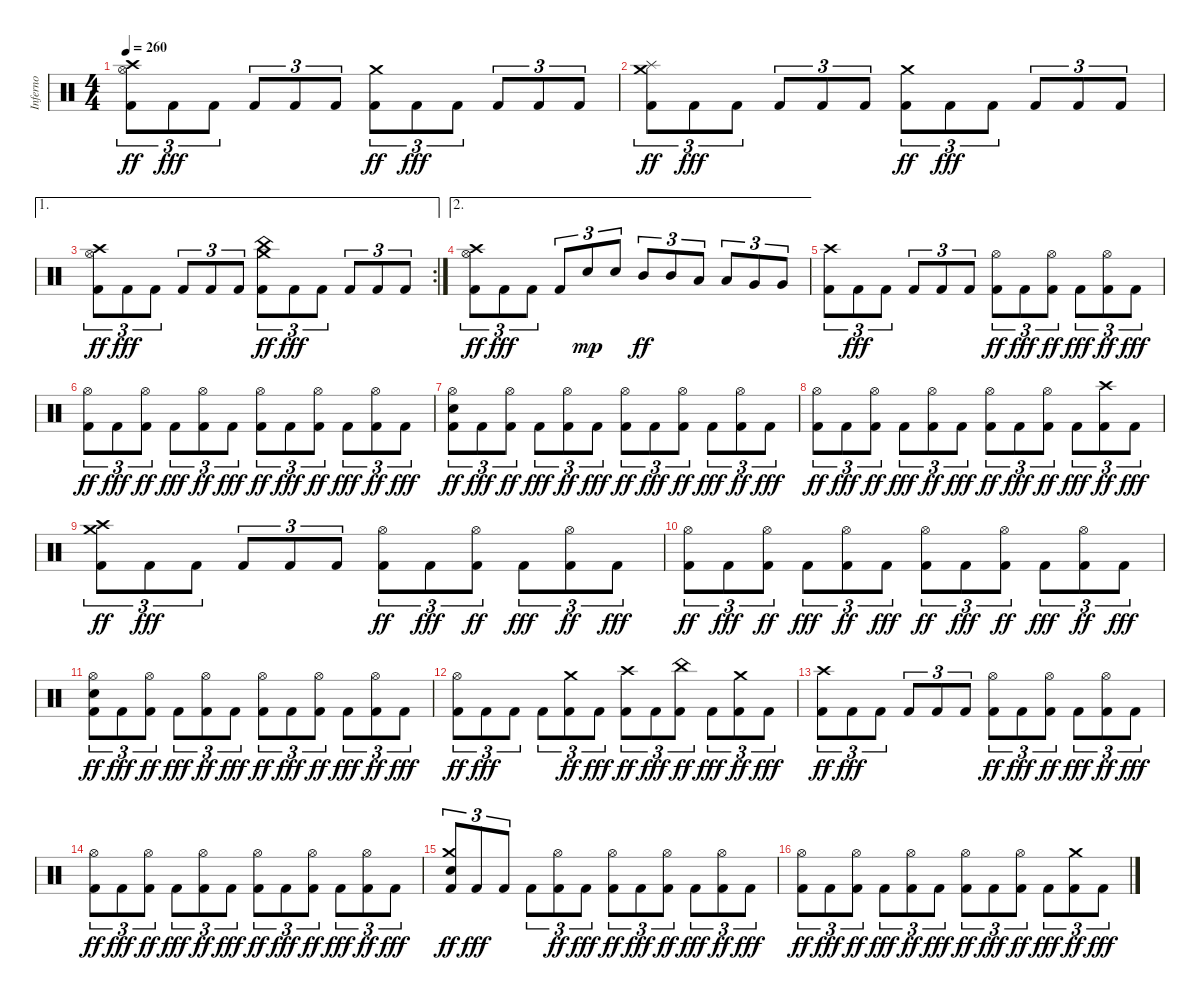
\track ("Inferno" "Inferno") {instrument percussion}
\staff {score}
\articulation defaults
\ts (4 4)
\tempo 260
\clef neutral
\ks c
("Kick (hit) 2" "Hi-Hat (open)" "Crash high (hit)").8{tu (3 2) dy ff} "Kick (hit) 2".8{tu (3 2) dy fff} "Kick (hit) 2".8{tu (3 2)} "Kick (hit) 2".8{tu (3 2)} "Kick (hit) 2".8{tu (3 2)} "Kick (hit) 2".8{tu (3 2)} ("Kick (hit) 2" "Crash medium (hit)").8{tu (3 2) dy ff} "Kick (hit) 2".8{tu (3 2) dy fff} "Kick (hit) 2".8{tu (3 2)} "Kick (hit) 2".8{tu (3 2)} "Kick (hit) 2".8{tu (3 2)} "Kick (hit) 2".8{tu (3 2)} |
("Kick (hit) 2" "Crash medium (hit)" "Splash (hit)").8{tu (3 2) dy ff} "Kick (hit) 2".8{tu (3 2) dy fff} "Kick (hit) 2".8{tu (3 2)} "Kick (hit) 2".8{tu (3 2)} "Kick (hit) 2".8{tu (3 2)} "Kick (hit) 2".8{tu (3 2)} ("Kick (hit) 2" "Crash medium (hit)").8{tu (3 2) dy ff} "Kick (hit) 2".8{tu (3 2) dy fff} "Kick (hit) 2".8{tu (3 2)} "Kick (hit) 2".8{tu (3 2)} "Kick (hit) 2".8{tu (3 2)} "Kick (hit) 2".8{tu (3 2)} |
\ae 1
\rc 2
("Kick (hit) 2" "Hi-Hat (open)" "Crash high (hit)").8{tu (3 2) dy ff} "Kick (hit) 2".8{tu (3 2) dy fff} "Kick (hit) 2".8{tu (3 2)} "Kick (hit) 2".8{tu (3 2)} "Kick (hit) 2".8{tu (3 2)} "Kick (hit) 2".8{tu (3 2)} ("Kick (hit) 2" "Crash medium (hit)" "China (hit)").8{tu (3 2) dy ff} "Kick (hit) 2".8{tu (3 2) dy fff} "Kick (hit) 2".8{tu (3 2)} "Kick (hit) 2".8{tu (3 2)} "Kick (hit) 2".8{tu (3 2)} "Kick (hit) 2".8{tu (3 2)} |
\ae 2
("Kick (hit) 2" "Hi-Hat (open)" "Crash high (hit)").8{tu (3 2) dy ff} "Kick (hit) 2".8{tu (3 2) dy fff} "Kick (hit) 2".8{tu (3 2)} "Kick (hit) 2".8{tu (3 2)} "Electric Snare (hit)".8{tu (3 2) dy mp} "Electric Snare (hit)".8{tu (3 2)} "Mid Tom (hit)".8{tu (3 2) dy ff} "Mid Tom (hit)".8{tu (3 2)} "Low Tom (hit)".8{tu (3 2)} "Low Tom (hit)".8{tu (3 2)} "Very Low Tom (hit)".8{tu (3 2)} "Very Low Tom (hit)".8{tu (3 2)} |
("Kick (hit) 2" "Crash high (hit)").8{tu (3 2)} "Kick (hit) 2".8{tu (3 2) dy fff} "Kick (hit) 2".8{tu (3 2)} "Kick (hit) 2".8{tu (3 2)} "Kick (hit) 2".8{tu (3 2)} "Kick (hit) 2".8{tu (3 2)} ("Kick (hit) 2" "Hi-Hat (open)").8{tu (3 2) dy ff} "Kick (hit) 2".8{tu (3 2) dy fff} ("Kick (hit) 2" "Hi-Hat (open)").8{tu (3 2) dy ff} "Kick (hit) 2".8{tu (3 2) dy fff} ("Kick (hit) 2" "Hi-Hat (open)").8{tu (3 2) dy ff} "Kick (hit) 2".8{tu (3 2) dy fff} |
("Kick (hit) 2" "Hi-Hat (open)").8{tu (3 2) dy ff} "Kick (hit) 2".8{tu (3 2) dy fff} ("Kick (hit) 2" "Hi-Hat (open)").8{tu (3 2) dy ff} "Kick (hit) 2".8{tu (3 2) dy fff} ("Kick (hit) 2" "Hi-Hat (open)").8{tu (3 2) dy ff} "Kick (hit) 2".8{tu (3 2) dy fff} ("Kick (hit) 2" "Hi-Hat (open)").8{tu (3 2) dy ff} "Kick (hit) 2".8{tu (3 2) dy fff} ("Kick (hit) 2" "Hi-Hat (open)").8{tu (3 2) dy ff} "Kick (hit) 2".8{tu (3 2) dy fff} ("Kick (hit) 2" "Hi-Hat (open)").8{tu (3 2) dy ff} "Kick (hit) 2".8{tu (3 2) dy fff} |
("Kick (hit) 2" "Electric Snare (hit)" "Hi-Hat (open)").8{tu (3 2) dy ff} "Kick (hit) 2".8{tu (3 2) dy fff} ("Kick (hit) 2" "Hi-Hat (open)").8{tu (3 2) dy ff} "Kick (hit) 2".8{tu (3 2) dy fff} ("Kick (hit) 2" "Hi-Hat (open)").8{tu (3 2) dy ff} "Kick (hit) 2".8{tu (3 2) dy fff} ("Kick (hit) 2" "Hi-Hat (open)").8{tu (3 2) dy ff} "Kick (hit) 2".8{tu (3 2) dy fff} ("Kick (hit) 2" "Hi-Hat (open)").8{tu (3 2) dy ff} "Kick (hit) 2".8{tu (3 2) dy fff} ("Kick (hit) 2" "Hi-Hat (open)").8{tu (3 2) dy ff} "Kick (hit) 2".8{tu (3 2) dy fff} |
("Kick (hit) 2" "Hi-Hat (open)").8{tu (3 2) dy ff} "Kick (hit) 2".8{tu (3 2) dy fff} ("Kick (hit) 2" "Hi-Hat (open)").8{tu (3 2) dy ff} "Kick (hit) 2".8{tu (3 2) dy fff} ("Kick (hit) 2" "Hi-Hat (open)").8{tu (3 2) dy ff} "Kick (hit) 2".8{tu (3 2) dy fff} ("Kick (hit) 2" "Hi-Hat (open)").8{tu (3 2) dy ff} "Kick (hit) 2".8{tu (3 2) dy fff} ("Kick (hit) 2" "Hi-Hat (open)").8{tu (3 2) dy ff} "Kick (hit) 2".8{tu (3 2) dy fff} ("Kick (hit) 2" "Crash high (hit)").8{tu (3 2) dy ff} "Kick (hit) 2".8{tu (3 2) dy fff} |
("Kick (hit) 2" "Crash high (hit)" "Crash medium (hit)").8{tu (3 2) dy ff} "Kick (hit) 2".8{tu (3 2) dy fff} "Kick (hit) 2".8{tu (3 2)} "Kick (hit) 2".8{tu (3 2)} "Kick (hit) 2".8{tu (3 2)} "Kick (hit) 2".8{tu (3 2)} ("Kick (hit) 2" "Hi-Hat (open)").8{tu (3 2) dy ff} "Kick (hit) 2".8{tu (3 2) dy fff} ("Kick (hit) 2" "Hi-Hat (open)").8{tu (3 2) dy ff} "Kick (hit) 2".8{tu (3 2) dy fff} ("Kick (hit) 2" "Hi-Hat (open)").8{tu (3 2) dy ff} "Kick (hit) 2".8{tu (3 2) dy fff} |
("Kick (hit) 2" "Hi-Hat (open)").8{tu (3 2) dy ff} "Kick (hit) 2".8{tu (3 2) dy fff} ("Kick (hit) 2" "Hi-Hat (open)").8{tu (3 2) dy ff} "Kick (hit) 2".8{tu (3 2) dy fff} ("Kick (hit) 2" "Hi-Hat (open)").8{tu (3 2) dy ff} "Kick (hit) 2".8{tu (3 2) dy fff} ("Kick (hit) 2" "Hi-Hat (open)").8{tu (3 2) dy ff} "Kick (hit) 2".8{tu (3 2) dy fff} ("Kick (hit) 2" "Hi-Hat (open)").8{tu (3 2) dy ff} "Kick (hit) 2".8{tu (3 2) dy fff} ("Kick (hit) 2" "Hi-Hat (open)").8{tu (3 2) dy ff} "Kick (hit) 2".8{tu (3 2) dy fff} |
("Kick (hit) 2" "Electric Snare (hit)" "Hi-Hat (open)").8{tu (3 2) dy ff} "Kick (hit) 2".8{tu (3 2) dy fff} ("Kick (hit) 2" "Hi-Hat (open)").8{tu (3 2) dy ff} "Kick (hit) 2".8{tu (3 2) dy fff} ("Kick (hit) 2" "Hi-Hat (open)").8{tu (3 2) dy ff} "Kick (hit) 2".8{tu (3 2) dy fff} ("Kick (hit) 2" "Hi-Hat (open)").8{tu (3 2) dy ff} "Kick (hit) 2".8{tu (3 2) dy fff} ("Kick (hit) 2" "Hi-Hat (open)").8{tu (3 2) dy ff} "Kick (hit) 2".8{tu (3 2) dy fff} ("Kick (hit) 2" "Hi-Hat (open)").8{tu (3 2) dy ff} "Kick (hit) 2".8{tu (3 2) dy fff} |
("Kick (hit) 2" "Hi-Hat (open)").8{tu (3 2) dy ff} "Kick (hit) 2".8{tu (3 2) dy fff} "Kick (hit) 2".8{tu (3 2)} "Kick (hit) 2".8{tu (3 2)} ("Kick (hit) 2" "Crash medium (hit)").8{tu (3 2) dy ff} "Kick (hit) 2".8{tu (3 2) dy fff} ("Kick (hit) 2" "Crash high (hit)").8{tu (3 2) dy ff} "Kick (hit) 2".8{tu (3 2) dy fff} ("Kick (hit) 2" "China (hit)").8{tu (3 2) dy ff} "Kick (hit) 2".8{tu (3 2) dy fff} ("Kick (hit) 2" "Crash medium (hit)").8{tu (3 2) dy ff} "Kick (hit) 2".8{tu (3 2) dy fff} |
("Kick (hit) 2" "Crash high (hit)").8{tu (3 2) dy ff} "Kick (hit) 2".8{tu (3 2) dy fff} "Kick (hit) 2".8{tu (3 2)} "Kick (hit) 2".8{tu (3 2)} "Kick (hit) 2".8{tu (3 2)} "Kick (hit) 2".8{tu (3 2)} ("Kick (hit) 2" "Hi-Hat (open)").8{tu (3 2) dy ff} "Kick (hit) 2".8{tu (3 2) dy fff} ("Kick (hit) 2" "Hi-Hat (open)").8{tu (3 2) dy ff} "Kick (hit) 2".8{tu (3 2) dy fff} ("Kick (hit) 2" "Hi-Hat (open)").8{tu (3 2) dy ff} "Kick (hit) 2".8{tu (3 2) dy fff} |
("Kick (hit) 2" "Hi-Hat (open)").8{tu (3 2) dy ff} "Kick (hit) 2".8{tu (3 2) dy fff} ("Kick (hit) 2" "Hi-Hat (open)").8{tu (3 2) dy ff} "Kick (hit) 2".8{tu (3 2) dy fff} ("Kick (hit) 2" "Hi-Hat (open)").8{tu (3 2) dy ff} "Kick (hit) 2".8{tu (3 2) dy fff} ("Kick (hit) 2" "Hi-Hat (open)").8{tu (3 2) dy ff} "Kick (hit) 2".8{tu (3 2) dy fff} ("Kick (hit) 2" "Hi-Hat (open)").8{tu (3 2) dy ff} "Kick (hit) 2".8{tu (3 2) dy fff} ("Kick (hit) 2" "Hi-Hat (open)").8{tu (3 2) dy ff} "Kick (hit) 2".8{tu (3 2) dy fff} |
("Kick (hit) 2" "Electric Snare (hit)" "Crash medium (hit)").8{tu (3 2) dy ff} "Kick (hit) 2".8{tu (3 2) dy fff} "Kick (hit) 2".8{tu (3 2)} "Kick (hit) 2".8{tu (3 2)} ("Kick (hit) 2" "Hi-Hat (open)").8{tu (3 2) dy ff} "Kick (hit) 2".8{tu (3 2) dy fff} ("Kick (hit) 2" "Hi-Hat (open)").8{tu (3 2) dy ff} "Kick (hit) 2".8{tu (3 2) dy fff} ("Kick (hit) 2" "Hi-Hat (open)").8{tu (3 2) dy ff} "Kick (hit) 2".8{tu (3 2) dy fff} ("Kick (hit) 2" "Hi-Hat (open)").8{tu (3 2) dy ff} "Kick (hit) 2".8{tu (3 2) dy fff} |
("Kick (hit) 2" "Hi-Hat (open)").8{tu (3 2) dy ff} "Kick (hit) 2".8{tu (3 2) dy fff} ("Kick (hit) 2" "Hi-Hat (open)").8{tu (3 2) dy ff} "Kick (hit) 2".8{tu (3 2) dy fff} ("Kick (hit) 2" "Hi-Hat (open)").8{tu (3 2) dy ff} "Kick (hit) 2".8{tu (3 2) dy fff} ("Kick (hit) 2" "Hi-Hat (open)").8{tu (3 2) dy ff} "Kick (hit) 2".8{tu (3 2) dy fff} ("Kick (hit) 2" "Hi-Hat (open)").8{tu (3 2) dy ff} "Kick (hit) 2".8{tu (3 2) dy fff} ("Kick (hit) 2" "Crash medium (hit)").8{tu (3 2) dy ff} "Kick (hit) 2".8{tu (3 2) dy fff}
